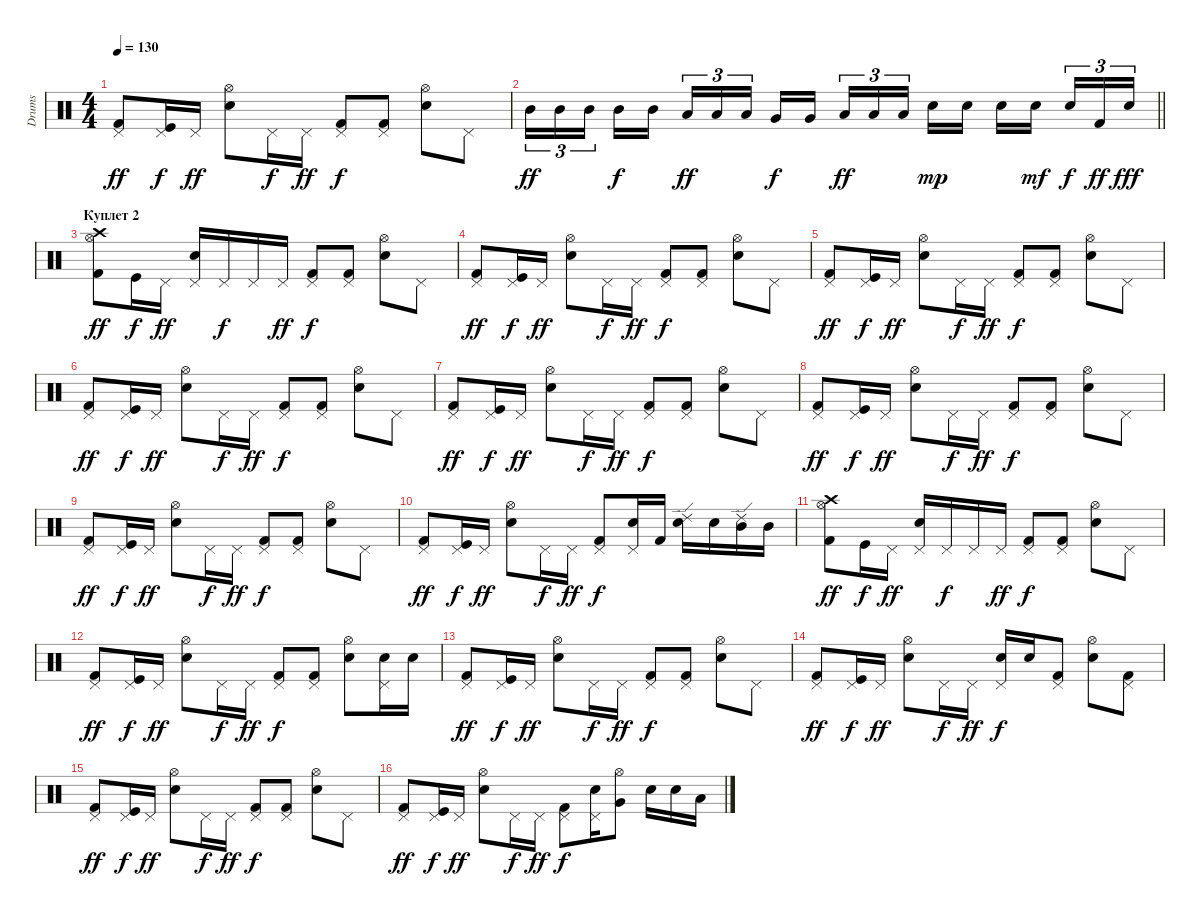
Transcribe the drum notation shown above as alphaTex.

\track ("Drums" "Drums") {instrument percussion}
\staff {score}
\articulation defaults
\ts (4 4)
\tempo 130
\clef neutral
\ks c
("Pedal Hi-Hat (hit)" "Kick (hit) 2").8{dy ff} ("Pedal Hi-Hat (hit)" "Kick (hit)").16{dy f} "Pedal Hi-Hat (hit)".16{dy ff} ("Hi-Hat (open)" "Snare (hit) 2").8 "Pedal Hi-Hat (hit)".16{dy f} "Pedal Hi-Hat (hit)".16{dy ff} ("Pedal Hi-Hat (hit)" "Kick (hit) 2").8{dy f} ("Pedal Hi-Hat (hit)" "Kick (hit) 2").8 ("Hi-Hat (open)" "Snare (hit) 2").8 "Pedal Hi-Hat (hit)".8 |
\barLineRight lightlight "Mid Tom (hit)".16{tu (3 2) dy ff} "Mid Tom (hit)".16{tu (3 2)} "Mid Tom (hit)".16{tu (3 2)} "Mid Tom (hit)".16{dy f} "Mid Tom (hit)".16 "Low Tom (hit)".16{tu (3 2) dy ff} "Low Tom (hit)".16{tu (3 2)} "Low Tom (hit)".16{tu (3 2)} "Very Low Tom (hit)".16{dy f} "Very Low Tom (hit)".16 "Low Tom (hit)".16{tu (3 2) dy ff} "Low Tom (hit)".16{tu (3 2)} "Low Tom (hit)".16{tu (3 2)} "Snare (hit) 2".16{dy mp} "Snare (hit) 2".16 "Snare (hit) 2".16 "Snare (hit) 2".16{dy mf} "Snare (hit) 2".16{tu (3 2) dy f} "Kick (hit) 2".16{tu (3 2) dy ff} "Snare (hit) 2".16{tu (3 2) dy fff}
|
\section ("" "Куплет 2")
("Crash high (hit)" "Kick (hit) 2" "Hi-Hat (open)").8{dy ff} "Kick (hit)".16{dy f} "Pedal Hi-Hat (hit)".16{dy ff} ("Pedal Hi-Hat (hit)" "Snare (hit) 2").16 "Pedal Hi-Hat (hit)".16{dy f} "Pedal Hi-Hat (hit)".16 "Pedal Hi-Hat (hit)".16{dy ff} ("Pedal Hi-Hat (hit)" "Kick (hit) 2").8{dy f} ("Pedal Hi-Hat (hit)" "Kick (hit) 2").8 ("Hi-Hat (open)" "Snare (hit) 2").8 "Pedal Hi-Hat (hit)".8 |
("Pedal Hi-Hat (hit)" "Kick (hit) 2").8{dy ff} ("Pedal Hi-Hat (hit)" "Kick (hit)").16{dy f} "Pedal Hi-Hat (hit)".16{dy ff} ("Hi-Hat (open)" "Snare (hit) 2").8 "Pedal Hi-Hat (hit)".16{dy f} "Pedal Hi-Hat (hit)".16{dy ff} ("Pedal Hi-Hat (hit)" "Kick (hit) 2").8{dy f} ("Pedal Hi-Hat (hit)" "Kick (hit) 2").8 ("Hi-Hat (open)" "Snare (hit) 2").8 "Pedal Hi-Hat (hit)".8 |
("Pedal Hi-Hat (hit)" "Kick (hit) 2").8{dy ff} ("Pedal Hi-Hat (hit)" "Kick (hit)").16{dy f} "Pedal Hi-Hat (hit)".16{dy ff} ("Hi-Hat (open)" "Snare (hit) 2").8 "Pedal Hi-Hat (hit)".16{dy f} "Pedal Hi-Hat (hit)".16{dy ff} ("Pedal Hi-Hat (hit)" "Kick (hit) 2").8{dy f} ("Pedal Hi-Hat (hit)" "Kick (hit) 2").8 ("Hi-Hat (open)" "Snare (hit) 2").8 "Pedal Hi-Hat (hit)".8 |
("Pedal Hi-Hat (hit)" "Kick (hit) 2").8{dy ff} ("Pedal Hi-Hat (hit)" "Kick (hit)").16{dy f} "Pedal Hi-Hat (hit)".16{dy ff} ("Hi-Hat (open)" "Snare (hit) 2").8 "Pedal Hi-Hat (hit)".16{dy f} "Pedal Hi-Hat (hit)".16{dy ff} ("Pedal Hi-Hat (hit)" "Kick (hit) 2").8{dy f} ("Pedal Hi-Hat (hit)" "Kick (hit) 2").8 ("Hi-Hat (open)" "Snare (hit) 2").8 "Pedal Hi-Hat (hit)".8 |
("Pedal Hi-Hat (hit)" "Kick (hit) 2").8{dy ff} ("Pedal Hi-Hat (hit)" "Kick (hit)").16{dy f} "Pedal Hi-Hat (hit)".16{dy ff} ("Hi-Hat (open)" "Snare (hit) 2").8 "Pedal Hi-Hat (hit)".16{dy f} "Pedal Hi-Hat (hit)".16{dy ff} ("Pedal Hi-Hat (hit)" "Kick (hit) 2").8{dy f} ("Pedal Hi-Hat (hit)" "Kick (hit) 2").8 ("Hi-Hat (open)" "Snare (hit) 2").8 "Pedal Hi-Hat (hit)".8 |
("Pedal Hi-Hat (hit)" "Kick (hit) 2").8{dy ff} ("Pedal Hi-Hat (hit)" "Kick (hit)").16{dy f} "Pedal Hi-Hat (hit)".16{dy ff} ("Hi-Hat (open)" "Snare (hit) 2").8 "Pedal Hi-Hat (hit)".16{dy f} "Pedal Hi-Hat (hit)".16{dy ff} ("Pedal Hi-Hat (hit)" "Kick (hit) 2").8{dy f} ("Pedal Hi-Hat (hit)" "Kick (hit) 2").8 ("Hi-Hat (open)" "Snare (hit) 2").8 "Pedal Hi-Hat (hit)".8 |
("Pedal Hi-Hat (hit)" "Kick (hit) 2").8{dy ff} ("Pedal Hi-Hat (hit)" "Kick (hit)").16{dy f} "Pedal Hi-Hat (hit)".16{dy ff} ("Hi-Hat (open)" "Snare (hit) 2").8 "Pedal Hi-Hat (hit)".16{dy f} "Pedal Hi-Hat (hit)".16{dy ff} ("Pedal Hi-Hat (hit)" "Kick (hit) 2").8{dy f} ("Pedal Hi-Hat (hit)" "Kick (hit) 2").8 ("Hi-Hat (open)" "Snare (hit) 2").8 "Pedal Hi-Hat (hit)".8 |
("Pedal Hi-Hat (hit)" "Kick (hit) 2").8{dy ff} ("Pedal Hi-Hat (hit)" "Kick (hit)").16{dy f} "Pedal Hi-Hat (hit)".16{dy ff} ("Hi-Hat (open)" "Snare (hit) 2").8 "Pedal Hi-Hat (hit)".16{dy f} "Pedal Hi-Hat (hit)".16{dy ff} ("Pedal Hi-Hat (hit)" "Kick (hit) 2").8{dy f} ("Pedal Hi-Hat (hit)" "Snare (hit) 2").16 "Kick (hit) 2".16 ("Ride (edge) 2" "Snare (hit) 2").16 "Snare (hit) 2".16 ("Ride (edge) 2" "Mid Tom (hit)").16 "Mid Tom (hit)".16 |
("Crash high (hit)" "Kick (hit) 2" "Hi-Hat (open)").8{dy ff} "Kick (hit)".16{dy f} "Pedal Hi-Hat (hit)".16{dy ff} ("Pedal Hi-Hat (hit)" "Snare (hit) 2").16 "Pedal Hi-Hat (hit)".16{dy f} "Pedal Hi-Hat (hit)".16 "Pedal Hi-Hat (hit)".16{dy ff} ("Pedal Hi-Hat (hit)" "Kick (hit) 2").8{dy f} ("Pedal Hi-Hat (hit)" "Kick (hit) 2").8 ("Hi-Hat (open)" "Snare (hit) 2").8 "Pedal Hi-Hat (hit)".8 |
("Pedal Hi-Hat (hit)" "Kick (hit) 2").8{dy ff} ("Pedal Hi-Hat (hit)" "Kick (hit)").16{dy f} "Pedal Hi-Hat (hit)".16{dy ff} ("Hi-Hat (open)" "Snare (hit) 2").8 "Pedal Hi-Hat (hit)".16{dy f} "Pedal Hi-Hat (hit)".16{dy ff} ("Pedal Hi-Hat (hit)" "Kick (hit) 2").8{dy f} ("Pedal Hi-Hat (hit)" "Kick (hit) 2").8 ("Hi-Hat (open)" "Snare (hit) 2").8 ("Pedal Hi-Hat (hit)" "Snare (hit) 2").16 "Snare (hit) 2".16 |
("Pedal Hi-Hat (hit)" "Kick (hit) 2").8{dy ff} ("Pedal Hi-Hat (hit)" "Kick (hit)").16{dy f} "Pedal Hi-Hat (hit)".16{dy ff} ("Hi-Hat (open)" "Snare (hit) 2").8 "Pedal Hi-Hat (hit)".16{dy f} "Pedal Hi-Hat (hit)".16{dy ff} ("Pedal Hi-Hat (hit)" "Kick (hit) 2").8{dy f} ("Pedal Hi-Hat (hit)" "Kick (hit) 2").8 ("Hi-Hat (open)" "Snare (hit) 2").8 "Pedal Hi-Hat (hit)".8 |
("Pedal Hi-Hat (hit)" "Kick (hit) 2").8{dy ff} ("Pedal Hi-Hat (hit)" "Kick (hit)").16{dy f} "Pedal Hi-Hat (hit)".16{dy ff} ("Hi-Hat (open)" "Snare (hit) 2").8 "Pedal Hi-Hat (hit)".16{dy f} "Pedal Hi-Hat (hit)".16{dy ff} ("Pedal Hi-Hat (hit)" "Snare (hit) 2").16{dy f} "Snare (hit) 2".16 ("Pedal Hi-Hat (hit)" "Kick (hit) 2").8 ("Hi-Hat (open)" "Snare (hit) 2").8 ("Pedal Hi-Hat (hit)" "Kick (hit) 2").8 |
("Pedal Hi-Hat (hit)" "Kick (hit) 2").8{dy ff} ("Pedal Hi-Hat (hit)" "Kick (hit)").16{dy f} "Pedal Hi-Hat (hit)".16{dy ff} ("Hi-Hat (open)" "Snare (hit) 2").8 "Pedal Hi-Hat (hit)".16{dy f} "Pedal Hi-Hat (hit)".16{dy ff} ("Pedal Hi-Hat (hit)" "Kick (hit) 2").8{dy f} ("Pedal Hi-Hat (hit)" "Kick (hit) 2").8 ("Hi-Hat (open)" "Snare (hit) 2").8 "Pedal Hi-Hat (hit)".8 |
("Pedal Hi-Hat (hit)" "Kick (hit) 2").8{dy ff} ("Pedal Hi-Hat (hit)" "Kick (hit)").16{dy f} "Pedal Hi-Hat (hit)".16{dy ff} ("Hi-Hat (open)" "Snare (hit) 2").8 "Pedal Hi-Hat (hit)".16{dy f} "Pedal Hi-Hat (hit)".16{dy ff} ("Pedal Hi-Hat (hit)" "Kick (hit) 2").8{dy f} ("Pedal Hi-Hat (hit)" "Snare (hit) 2").16 ("Hi-Hat (open)" "Very Low Tom (hit)").8 "Snare (hit) 2".16 "Snare (hit) 2".16 "Low Floor Tom (hit)".16
